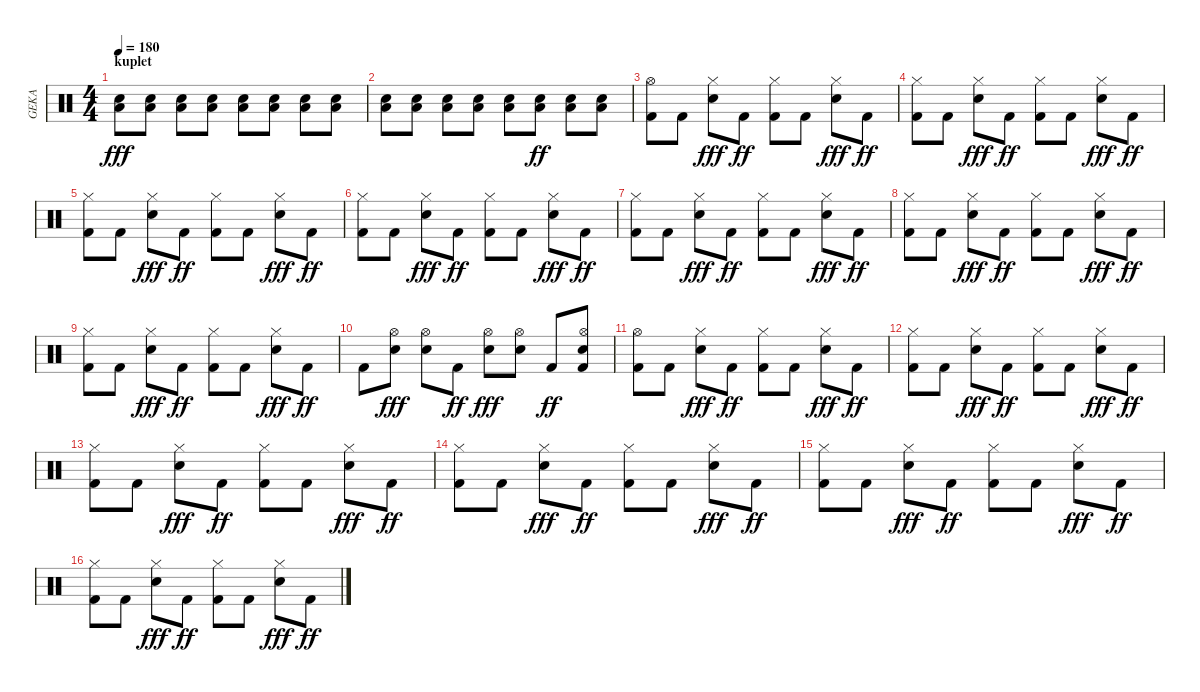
\track ("GEKA" "GEKA") {instrument percussion}
\staff {score}
\articulation defaults
\ts (4 4)
\section ("" "kuplet")
\tempo 180
\clef neutral
\ks c
("Snare (hit) 2" "Low Floor Tom (hit)").8{dy fff} ("Snare (hit) 2" "Low Floor Tom (hit)").8 ("Snare (hit) 2" "Low Floor Tom (hit)").8 ("Snare (hit) 2" "Low Floor Tom (hit)").8 ("Snare (hit) 2" "Low Floor Tom (hit)").8 ("Snare (hit) 2" "Low Floor Tom (hit)").8 ("Snare (hit) 2" "Low Floor Tom (hit)").8 ("Snare (hit) 2" "Low Floor Tom (hit)").8 |
("Snare (hit) 2" "Low Floor Tom (hit)").8 ("Snare (hit) 2" "Low Floor Tom (hit)").8 ("Snare (hit) 2" "Low Floor Tom (hit)").8 ("Snare (hit) 2" "Low Floor Tom (hit)").8 ("Snare (hit) 2" "Low Floor Tom (hit)").8 ("Snare (hit) 2" "Low Floor Tom (hit)").8{dy ff} ("Snare (hit) 2" "Low Floor Tom (hit)").8 ("Snare (hit) 2" "Low Floor Tom (hit)").8 |
("Hi-Hat (open)" "Kick (hit) 2").8 "Kick (hit) 2".8 ("Hi-Hat (closed)" "Snare (hit) 2").8{dy fff} "Kick (hit) 2".8{dy ff} ("Hi-Hat (closed)" "Kick (hit) 2").8 "Kick (hit) 2".8 ("Hi-Hat (closed)" "Snare (hit) 2").8{dy fff} "Kick (hit) 2".8{dy ff} |
("Hi-Hat (closed)" "Kick (hit) 2").8 "Kick (hit) 2".8 ("Hi-Hat (closed)" "Snare (hit) 2").8{dy fff} "Kick (hit) 2".8{dy ff} ("Hi-Hat (closed)" "Kick (hit) 2").8 "Kick (hit) 2".8 ("Hi-Hat (closed)" "Snare (hit) 2").8{dy fff} "Kick (hit) 2".8{dy ff} |
("Hi-Hat (closed)" "Kick (hit) 2").8 "Kick (hit) 2".8 ("Hi-Hat (closed)" "Snare (hit) 2").8{dy fff} "Kick (hit) 2".8{dy ff} ("Hi-Hat (closed)" "Kick (hit) 2").8 "Kick (hit) 2".8 ("Hi-Hat (closed)" "Snare (hit) 2").8{dy fff} "Kick (hit) 2".8{dy ff} |
("Hi-Hat (closed)" "Kick (hit) 2").8 "Kick (hit) 2".8 ("Hi-Hat (closed)" "Snare (hit) 2").8{dy fff} "Kick (hit) 2".8{dy ff} ("Hi-Hat (closed)" "Kick (hit) 2").8 "Kick (hit) 2".8 ("Hi-Hat (closed)" "Snare (hit) 2").8{dy fff} "Kick (hit) 2".8{dy ff} |
("Hi-Hat (closed)" "Kick (hit) 2").8 "Kick (hit) 2".8 ("Hi-Hat (closed)" "Snare (hit) 2").8{dy fff} "Kick (hit) 2".8{dy ff} ("Hi-Hat (closed)" "Kick (hit) 2").8 "Kick (hit) 2".8 ("Hi-Hat (closed)" "Snare (hit) 2").8{dy fff} "Kick (hit) 2".8{dy ff} |
("Hi-Hat (closed)" "Kick (hit) 2").8 "Kick (hit) 2".8 ("Hi-Hat (closed)" "Snare (hit) 2").8{dy fff} "Kick (hit) 2".8{dy ff} ("Hi-Hat (closed)" "Kick (hit) 2").8 "Kick (hit) 2".8 ("Hi-Hat (closed)" "Snare (hit) 2").8{dy fff} "Kick (hit) 2".8{dy ff} |
("Hi-Hat (closed)" "Kick (hit) 2").8 "Kick (hit) 2".8 ("Hi-Hat (closed)" "Snare (hit) 2").8{dy fff} "Kick (hit) 2".8{dy ff} ("Hi-Hat (closed)" "Kick (hit) 2").8 "Kick (hit) 2".8 ("Hi-Hat (closed)" "Snare (hit) 2").8{dy fff} "Kick (hit) 2".8{dy ff} |
"Kick (hit) 2".8 ("Hi-Hat (open)" "Snare (hit) 2").8{dy fff} ("Hi-Hat (open)" "Snare (hit) 2").8 "Kick (hit) 2".8{dy ff} ("Hi-Hat (open)" "Snare (hit) 2").8{dy fff} ("Hi-Hat (open)" "Snare (hit) 2").8 "Kick (hit) 2".8{dy ff} ("Hi-Hat (open)" "Snare (hit) 2" "Kick (hit) 2").8 |
("Hi-Hat (open)" "Kick (hit) 2").8 "Kick (hit) 2".8 ("Hi-Hat (closed)" "Snare (hit) 2").8{dy fff} "Kick (hit) 2".8{dy ff} ("Hi-Hat (closed)" "Kick (hit) 2").8 "Kick (hit) 2".8 ("Hi-Hat (closed)" "Snare (hit) 2").8{dy fff} "Kick (hit) 2".8{dy ff} |
("Hi-Hat (closed)" "Kick (hit) 2").8 "Kick (hit) 2".8 ("Hi-Hat (closed)" "Snare (hit) 2").8{dy fff} "Kick (hit) 2".8{dy ff} ("Hi-Hat (closed)" "Kick (hit) 2").8 "Kick (hit) 2".8 ("Hi-Hat (closed)" "Snare (hit) 2").8{dy fff} "Kick (hit) 2".8{dy ff} |
("Hi-Hat (closed)" "Kick (hit) 2").8 "Kick (hit) 2".8 ("Hi-Hat (closed)" "Snare (hit) 2").8{dy fff} "Kick (hit) 2".8{dy ff} ("Hi-Hat (closed)" "Kick (hit) 2").8 "Kick (hit) 2".8 ("Hi-Hat (closed)" "Snare (hit) 2").8{dy fff} "Kick (hit) 2".8{dy ff} |
("Hi-Hat (closed)" "Kick (hit) 2").8 "Kick (hit) 2".8 ("Hi-Hat (closed)" "Snare (hit) 2").8{dy fff} "Kick (hit) 2".8{dy ff} ("Hi-Hat (closed)" "Kick (hit) 2").8 "Kick (hit) 2".8 ("Hi-Hat (closed)" "Snare (hit) 2").8{dy fff} "Kick (hit) 2".8{dy ff} |
("Hi-Hat (closed)" "Kick (hit) 2").8 "Kick (hit) 2".8 ("Hi-Hat (closed)" "Snare (hit) 2").8{dy fff} "Kick (hit) 2".8{dy ff} ("Hi-Hat (closed)" "Kick (hit) 2").8 "Kick (hit) 2".8 ("Hi-Hat (closed)" "Snare (hit) 2").8{dy fff} "Kick (hit) 2".8{dy ff} |
("Hi-Hat (closed)" "Kick (hit) 2").8 "Kick (hit) 2".8 ("Hi-Hat (closed)" "Snare (hit) 2").8{dy fff} "Kick (hit) 2".8{dy ff} ("Hi-Hat (closed)" "Kick (hit) 2").8 "Kick (hit) 2".8 ("Hi-Hat (closed)" "Snare (hit) 2").8{dy fff} "Kick (hit) 2".8{dy ff}
